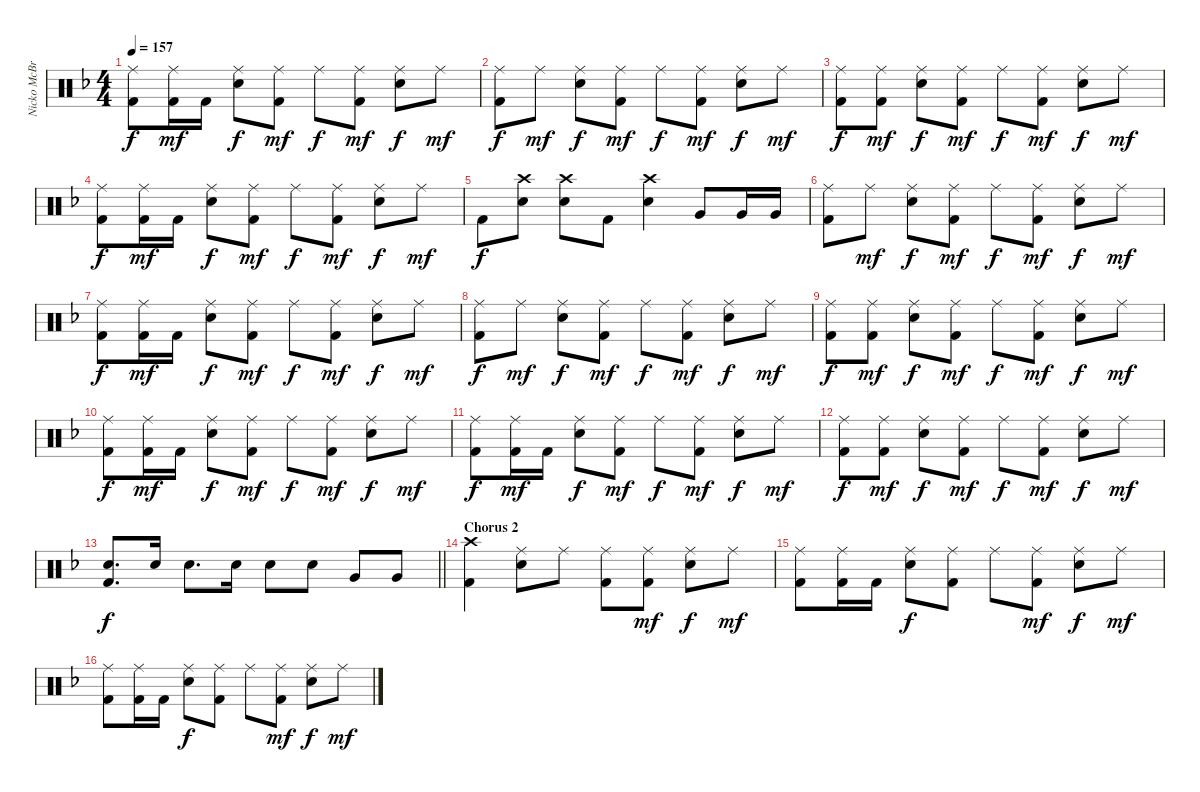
\track ("Nicko McBrain" "Nicko McBr") {instrument percussion}
\staff {score}
\articulation defaults
\ts (4 4)
\tempo 157
\clef neutral
\ks f
("Ride (middle)" "Kick (hit) 2").8{dy f} ("Ride (middle)" "Kick (hit) 2").16{dy mf} "Kick (hit) 2".16 ("Ride (middle)" "Electric Snare (hit)").8{dy f} ("Ride (middle)" "Kick (hit) 2").8{dy mf} "Ride (middle)".8{dy f} ("Ride (middle)" "Kick (hit) 2").8{dy mf} ("Ride (middle)" "Electric Snare (hit)").8{dy f} "Ride (middle)".8{dy mf} |
("Ride (middle)" "Kick (hit) 2").8{dy f} "Ride (middle)".8{dy mf} ("Ride (middle)" "Electric Snare (hit)").8{dy f} ("Ride (middle)" "Kick (hit) 2").8{dy mf} "Ride (middle)".8{dy f} ("Ride (middle)" "Kick (hit) 2").8{dy mf} ("Ride (middle)" "Electric Snare (hit)").8{dy f} "Ride (middle)".8{dy mf} |
("Ride (middle)" "Kick (hit) 2").8{dy f} ("Ride (middle)" "Kick (hit) 2").8{dy mf} ("Ride (middle)" "Electric Snare (hit)").8{dy f} ("Ride (middle)" "Kick (hit) 2").8{dy mf} "Ride (middle)".8{dy f} ("Ride (middle)" "Kick (hit) 2").8{dy mf} ("Ride (middle)" "Electric Snare (hit)").8{dy f} "Ride (middle)".8{dy mf} |
("Ride (middle)" "Kick (hit) 2").8{dy f} ("Ride (middle)" "Kick (hit) 2").16{dy mf} "Kick (hit) 2".16 ("Ride (middle)" "Electric Snare (hit)").8{dy f} ("Ride (middle)" "Kick (hit) 2").8{dy mf} "Ride (middle)".8{dy f} ("Ride (middle)" "Kick (hit) 2").8{dy mf} ("Ride (middle)" "Electric Snare (hit)").8{dy f} "Ride (middle)".8{dy mf} |
"Kick (hit) 2".8{dy f} ("Crash high (hit)" "Electric Snare (hit)").8 ("Crash high (hit)" "Electric Snare (hit)").8 "Kick (hit) 2".8 ("Crash high (hit)" "Electric Snare (hit)").4 "Very Low Tom (hit)".8 "Very Low Tom (hit)".16 "Very Low Tom (hit)".16 |
("Ride (middle)" "Kick (hit) 2").8 "Ride (middle)".8{dy mf} ("Ride (middle)" "Electric Snare (hit)").8{dy f} ("Ride (middle)" "Kick (hit) 2").8{dy mf} "Ride (middle)".8{dy f} ("Ride (middle)" "Kick (hit) 2").8{dy mf} ("Ride (middle)" "Electric Snare (hit)").8{dy f} "Ride (middle)".8{dy mf} |
("Ride (middle)" "Kick (hit) 2").8{dy f} ("Ride (middle)" "Kick (hit) 2").16{dy mf} "Kick (hit) 2".16 ("Ride (middle)" "Electric Snare (hit)").8{dy f} ("Ride (middle)" "Kick (hit) 2").8{dy mf} "Ride (middle)".8{dy f} ("Ride (middle)" "Kick (hit) 2").8{dy mf} ("Ride (middle)" "Electric Snare (hit)").8{dy f} "Ride (middle)".8{dy mf} |
("Ride (middle)" "Kick (hit) 2").8{dy f} "Ride (middle)".8{dy mf} ("Ride (middle)" "Electric Snare (hit)").8{dy f} ("Ride (middle)" "Kick (hit) 2").8{dy mf} "Ride (middle)".8{dy f} ("Ride (middle)" "Kick (hit) 2").8{dy mf} ("Ride (middle)" "Electric Snare (hit)").8{dy f} "Ride (middle)".8{dy mf} |
("Ride (middle)" "Kick (hit) 2").8{dy f} ("Ride (middle)" "Kick (hit) 2").8{dy mf} ("Ride (middle)" "Electric Snare (hit)").8{dy f} ("Ride (middle)" "Kick (hit) 2").8{dy mf} "Ride (middle)".8{dy f} ("Ride (middle)" "Kick (hit) 2").8{dy mf} ("Ride (middle)" "Electric Snare (hit)").8{dy f} "Ride (middle)".8{dy mf} |
("Ride (middle)" "Kick (hit) 2").8{dy f} ("Ride (middle)" "Kick (hit) 2").16{dy mf} "Kick (hit) 2".16 ("Ride (middle)" "Electric Snare (hit)").8{dy f} ("Ride (middle)" "Kick (hit) 2").8{dy mf} "Ride (middle)".8{dy f} ("Ride (middle)" "Kick (hit) 2").8{dy mf} ("Ride (middle)" "Electric Snare (hit)").8{dy f} "Ride (middle)".8{dy mf} |
("Ride (middle)" "Kick (hit) 2").8{dy f} ("Ride (middle)" "Kick (hit) 2").16{dy mf} "Kick (hit) 2".16 ("Ride (middle)" "Electric Snare (hit)").8{dy f} ("Ride (middle)" "Kick (hit) 2").8{dy mf} "Ride (middle)".8{dy f} ("Ride (middle)" "Kick (hit) 2").8{dy mf} ("Ride (middle)" "Electric Snare (hit)").8{dy f} "Ride (middle)".8{dy mf} |
("Ride (middle)" "Kick (hit) 2").8{dy f} ("Ride (middle)" "Kick (hit) 2").8{dy mf} ("Ride (middle)" "Electric Snare (hit)").8{dy f} ("Ride (middle)" "Kick (hit) 2").8{dy mf} "Ride (middle)".8{dy f} ("Ride (middle)" "Kick (hit) 2").8{dy mf} ("Ride (middle)" "Electric Snare (hit)").8{dy f} "Ride (middle)".8{dy mf} |
\barLineRight lightlight
("Electric Snare (hit)" "Kick (hit) 2").8{d dy f} "Electric Snare (hit)".16 "Electric Snare (hit)".8{d} "Electric Snare (hit)".16 "Electric Snare (hit)".8 "Electric Snare (hit)".8 "Very Low Tom (hit)".8 "Very Low Tom (hit)".8 |
\section ("" "Chorus 2")
("Crash high (hit)" "Kick (hit) 2").4 ("Ride (middle)" "Electric Snare (hit)").8 "Ride (middle)".8 ("Ride (middle)" "Kick (hit) 2").8 ("Ride (middle)" "Kick (hit) 2").8{dy mf} ("Ride (middle)" "Electric Snare (hit)").8{dy f} "Ride (middle)".8{dy mf} |
("Ride (middle)" "Kick (hit) 2").8 ("Ride (middle)" "Kick (hit) 2").16 "Kick (hit) 2".16 ("Ride (middle)" "Electric Snare (hit)").8{dy f} ("Ride (middle)" "Kick (hit) 2").8 "Ride (middle)".8 ("Ride (middle)" "Kick (hit) 2").8{dy mf} ("Ride (middle)" "Electric Snare (hit)").8{dy f} "Ride (middle)".8{dy mf} |
("Ride (middle)" "Kick (hit) 2").8 ("Ride (middle)" "Kick (hit) 2").16 "Kick (hit) 2".16 ("Ride (middle)" "Electric Snare (hit)").8{dy f} ("Ride (middle)" "Kick (hit) 2").8 "Ride (middle)".8 ("Ride (middle)" "Kick (hit) 2").8{dy mf} ("Ride (middle)" "Electric Snare (hit)").8{dy f} "Ride (middle)".8{dy mf}
